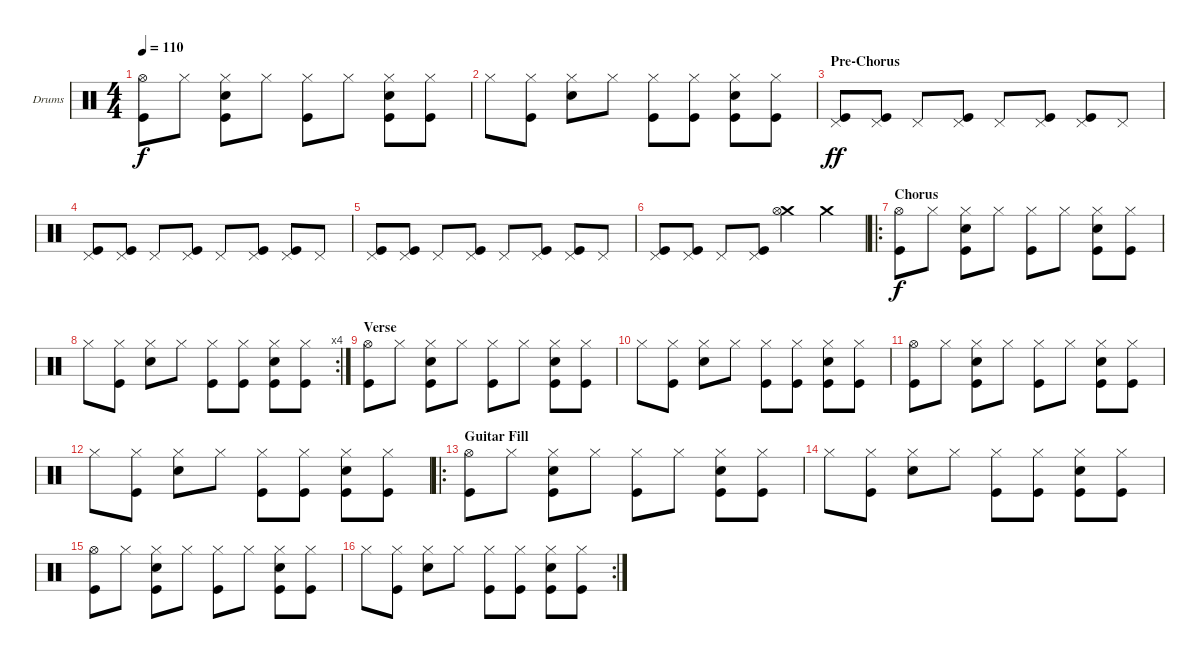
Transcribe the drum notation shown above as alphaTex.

\defaultSystemsLayout 4
\bracketExtendMode groupsimilarinstruments
\firstSystemTrackNameOrientation horizontal
\otherSystemsTrackNameOrientation horizontal
\track ("Drumkit" "Drums") {instrument percussion}
\staff {score}
\articulation defaults
\ts (4 4)
\tempo 110
\clef neutral
\ks c
("Kick (hit)" "Hi-Hat (open)").8{dy f} "Hi-Hat (closed)".8 ("Kick (hit)" "Hi-Hat (closed)" "Snare (hit) 2").8 "Hi-Hat (closed)".8 ("Kick (hit)" "Hi-Hat (closed)").8 "Hi-Hat (closed)".8 ("Kick (hit)" "Hi-Hat (closed)" "Snare (hit) 2").8 ("Kick (hit)" "Hi-Hat (closed)").8 |
"Hi-Hat (closed)".8 ("Kick (hit)" "Hi-Hat (closed)").8 ("Hi-Hat (closed)" "Snare (hit) 2").8 "Hi-Hat (closed)".8 ("Kick (hit)" "Hi-Hat (closed)").8 ("Kick (hit)" "Hi-Hat (closed)").8 ("Kick (hit)" "Hi-Hat (closed)" "Snare (hit) 2").8 ("Kick (hit)" "Hi-Hat (closed)").8 |
\section ("" "Pre-Chorus")
("Kick (hit)" "Pedal Hi-Hat (hit)").8{dy ff} ("Kick (hit)" "Pedal Hi-Hat (hit)").8 "Pedal Hi-Hat (hit)".8 ("Kick (hit)" "Pedal Hi-Hat (hit)").8 "Pedal Hi-Hat (hit)".8 ("Kick (hit)" "Pedal Hi-Hat (hit)").8 ("Kick (hit)" "Pedal Hi-Hat (hit)").8 "Pedal Hi-Hat (hit)".8 |
("Kick (hit)" "Pedal Hi-Hat (hit)").8 ("Kick (hit)" "Pedal Hi-Hat (hit)").8 "Pedal Hi-Hat (hit)".8 ("Kick (hit)" "Pedal Hi-Hat (hit)").8 "Pedal Hi-Hat (hit)".8 ("Kick (hit)" "Pedal Hi-Hat (hit)").8 ("Kick (hit)" "Pedal Hi-Hat (hit)").8 "Pedal Hi-Hat (hit)".8 |
("Kick (hit)" "Pedal Hi-Hat (hit)").8 ("Kick (hit)" "Pedal Hi-Hat (hit)").8 "Pedal Hi-Hat (hit)".8 ("Kick (hit)" "Pedal Hi-Hat (hit)").8 "Pedal Hi-Hat (hit)".8 ("Kick (hit)" "Pedal Hi-Hat (hit)").8 ("Kick (hit)" "Pedal Hi-Hat (hit)").8 "Pedal Hi-Hat (hit)".8 |
("Kick (hit)" "Pedal Hi-Hat (hit)").8 ("Kick (hit)" "Pedal Hi-Hat (hit)").8 "Pedal Hi-Hat (hit)".8 ("Kick (hit)" "Pedal Hi-Hat (hit)").8 ("Crash medium (hit)" "Hi-Hat (open)").4 "Crash medium (hit)".4 |
\ro
\section ("" "Chorus")
("Kick (hit)" "Hi-Hat (open)").8{dy f} "Hi-Hat (closed)".8 ("Kick (hit)" "Hi-Hat (closed)" "Snare (hit) 2").8 "Hi-Hat (closed)".8 ("Kick (hit)" "Hi-Hat (closed)").8 "Hi-Hat (closed)".8 ("Kick (hit)" "Hi-Hat (closed)" "Snare (hit) 2").8 ("Kick (hit)" "Hi-Hat (closed)").8 |
\rc 4 "Hi-Hat (closed)".8
("Kick (hit)" "Hi-Hat (closed)").8 ("Hi-Hat (closed)" "Snare (hit) 2").8 "Hi-Hat (closed)".8 ("Kick (hit)" "Hi-Hat (closed)").8 ("Kick (hit)" "Hi-Hat (closed)").8 ("Kick (hit)" "Hi-Hat (closed)" "Snare (hit) 2").8 ("Kick (hit)" "Hi-Hat (closed)").8 |
\section ("" "Verse")
("Kick (hit)" "Hi-Hat (open)").8 "Hi-Hat (closed)".8 ("Kick (hit)" "Hi-Hat (closed)" "Snare (hit) 2").8 "Hi-Hat (closed)".8 ("Kick (hit)" "Hi-Hat (closed)").8 "Hi-Hat (closed)".8 ("Kick (hit)" "Hi-Hat (closed)" "Snare (hit) 2").8 ("Kick (hit)" "Hi-Hat (closed)").8 |
"Hi-Hat (closed)".8 ("Kick (hit)" "Hi-Hat (closed)").8 ("Hi-Hat (closed)" "Snare (hit) 2").8 "Hi-Hat (closed)".8 ("Kick (hit)" "Hi-Hat (closed)").8 ("Kick (hit)" "Hi-Hat (closed)").8 ("Kick (hit)" "Hi-Hat (closed)" "Snare (hit) 2").8 ("Kick (hit)" "Hi-Hat (closed)").8 |
("Kick (hit)" "Hi-Hat (open)").8 "Hi-Hat (closed)".8 ("Kick (hit)" "Hi-Hat (closed)" "Snare (hit) 2").8 "Hi-Hat (closed)".8 ("Kick (hit)" "Hi-Hat (closed)").8 "Hi-Hat (closed)".8 ("Kick (hit)" "Hi-Hat (closed)" "Snare (hit) 2").8 ("Kick (hit)" "Hi-Hat (closed)").8 |
"Hi-Hat (closed)".8 ("Kick (hit)" "Hi-Hat (closed)").8 ("Hi-Hat (closed)" "Snare (hit) 2").8 "Hi-Hat (closed)".8 ("Kick (hit)" "Hi-Hat (closed)").8 ("Kick (hit)" "Hi-Hat (closed)").8 ("Kick (hit)" "Hi-Hat (closed)" "Snare (hit) 2").8 ("Kick (hit)" "Hi-Hat (closed)").8 |
\ro
\section ("" "Guitar Fill")
("Kick (hit)" "Hi-Hat (open)").8 "Hi-Hat (closed)".8 ("Kick (hit)" "Hi-Hat (closed)" "Snare (hit) 2").8 "Hi-Hat (closed)".8 ("Kick (hit)" "Hi-Hat (closed)").8 "Hi-Hat (closed)".8 ("Kick (hit)" "Hi-Hat (closed)" "Snare (hit) 2").8 ("Kick (hit)" "Hi-Hat (closed)").8 |
"Hi-Hat (closed)".8 ("Kick (hit)" "Hi-Hat (closed)").8 ("Hi-Hat (closed)" "Snare (hit) 2").8 "Hi-Hat (closed)".8 ("Kick (hit)" "Hi-Hat (closed)").8 ("Kick (hit)" "Hi-Hat (closed)").8 ("Kick (hit)" "Hi-Hat (closed)" "Snare (hit) 2").8 ("Kick (hit)" "Hi-Hat (closed)").8 |
("Kick (hit)" "Hi-Hat (open)").8 "Hi-Hat (closed)".8 ("Kick (hit)" "Hi-Hat (closed)" "Snare (hit) 2").8 "Hi-Hat (closed)".8 ("Kick (hit)" "Hi-Hat (closed)").8 "Hi-Hat (closed)".8 ("Kick (hit)" "Hi-Hat (closed)" "Snare (hit) 2").8 ("Kick (hit)" "Hi-Hat (closed)").8 |
\rc 2 "Hi-Hat (closed)".8
("Kick (hit)" "Hi-Hat (closed)").8 ("Hi-Hat (closed)" "Snare (hit) 2").8 "Hi-Hat (closed)".8 ("Kick (hit)" "Hi-Hat (closed)").8 ("Kick (hit)" "Hi-Hat (closed)").8 ("Kick (hit)" "Hi-Hat (closed)" "Snare (hit) 2").8 ("Kick (hit)" "Hi-Hat (closed)").8
